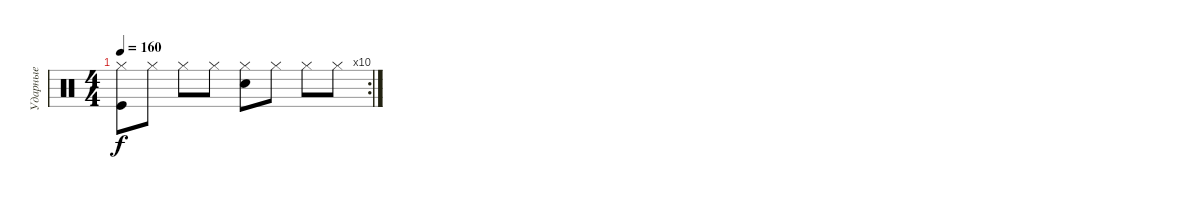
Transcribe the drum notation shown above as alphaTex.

\track ("Ударные" "Ударные") {instrument percussion}
\staff {score}
\articulation defaults
\rc 10
\ts (4 4)
\tempo 160
\clef neutral
\ks c
("Hi-Hat (closed)" "Kick (hit)").8{dy f} "Hi-Hat (closed)".8 "Hi-Hat (closed)".8 "Hi-Hat (closed)".8 ("Hi-Hat (closed)" "Snare (hit) 2").8 "Hi-Hat (closed)".8 "Hi-Hat (closed)".8 "Hi-Hat (closed)".8
